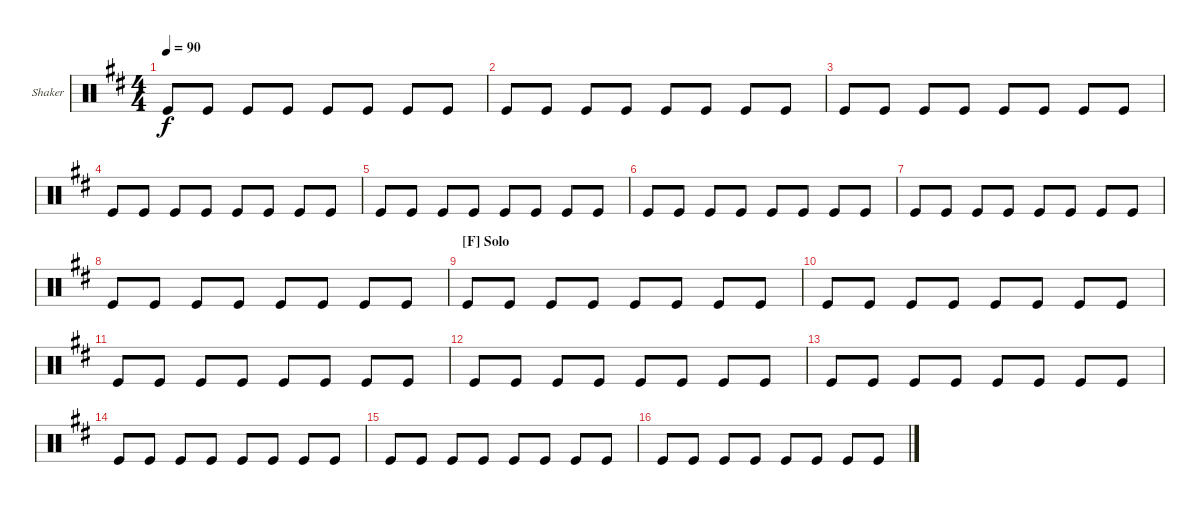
\defaultSystemsLayout 4
\bracketExtendMode groupsimilarinstruments
\firstSystemTrackNameOrientation horizontal
\otherSystemsTrackNameOrientation horizontal
\track ("Shaker" "Shaker") {multiBarRest instrument percussion}
\staff {score}
\articulation defaults
\ts (4 4)
\tempo 90
\clef neutral
\ks d "Kick (hit)".8{dy f} "Kick (hit)".8 "Kick (hit)".8 "Kick (hit)".8 "Kick (hit)".8 "Kick (hit)".8 "Kick (hit)".8 "Kick (hit)".8
|
"Kick (hit)".8 "Kick (hit)".8 "Kick (hit)".8 "Kick (hit)".8 "Kick (hit)".8 "Kick (hit)".8 "Kick (hit)".8 "Kick (hit)".8 |
"Kick (hit)".8 "Kick (hit)".8 "Kick (hit)".8 "Kick (hit)".8 "Kick (hit)".8 "Kick (hit)".8 "Kick (hit)".8 "Kick (hit)".8 |
"Kick (hit)".8 "Kick (hit)".8 "Kick (hit)".8 "Kick (hit)".8 "Kick (hit)".8 "Kick (hit)".8 "Kick (hit)".8 "Kick (hit)".8 |
"Kick (hit)".8 "Kick (hit)".8 "Kick (hit)".8 "Kick (hit)".8 "Kick (hit)".8 "Kick (hit)".8 "Kick (hit)".8 "Kick (hit)".8 |
"Kick (hit)".8 "Kick (hit)".8 "Kick (hit)".8 "Kick (hit)".8 "Kick (hit)".8 "Kick (hit)".8 "Kick (hit)".8 "Kick (hit)".8 |
"Kick (hit)".8 "Kick (hit)".8 "Kick (hit)".8 "Kick (hit)".8 "Kick (hit)".8 "Kick (hit)".8 "Kick (hit)".8 "Kick (hit)".8 |
"Kick (hit)".8 "Kick (hit)".8 "Kick (hit)".8 "Kick (hit)".8 "Kick (hit)".8 "Kick (hit)".8 "Kick (hit)".8 "Kick (hit)".8 |
\section ("F" "Solo")
"Kick (hit)".8 "Kick (hit)".8 "Kick (hit)".8 "Kick (hit)".8 "Kick (hit)".8 "Kick (hit)".8 "Kick (hit)".8 "Kick (hit)".8 |
"Kick (hit)".8 "Kick (hit)".8 "Kick (hit)".8 "Kick (hit)".8 "Kick (hit)".8 "Kick (hit)".8 "Kick (hit)".8 "Kick (hit)".8 |
"Kick (hit)".8 "Kick (hit)".8 "Kick (hit)".8 "Kick (hit)".8 "Kick (hit)".8 "Kick (hit)".8 "Kick (hit)".8 "Kick (hit)".8 |
"Kick (hit)".8 "Kick (hit)".8 "Kick (hit)".8 "Kick (hit)".8 "Kick (hit)".8 "Kick (hit)".8 "Kick (hit)".8 "Kick (hit)".8 |
"Kick (hit)".8 "Kick (hit)".8 "Kick (hit)".8 "Kick (hit)".8 "Kick (hit)".8 "Kick (hit)".8 "Kick (hit)".8 "Kick (hit)".8 |
"Kick (hit)".8 "Kick (hit)".8 "Kick (hit)".8 "Kick (hit)".8 "Kick (hit)".8 "Kick (hit)".8 "Kick (hit)".8 "Kick (hit)".8 |
"Kick (hit)".8 "Kick (hit)".8 "Kick (hit)".8 "Kick (hit)".8 "Kick (hit)".8 "Kick (hit)".8 "Kick (hit)".8 "Kick (hit)".8 |
"Kick (hit)".8 "Kick (hit)".8 "Kick (hit)".8 "Kick (hit)".8 "Kick (hit)".8 "Kick (hit)".8 "Kick (hit)".8 "Kick (hit)".8
